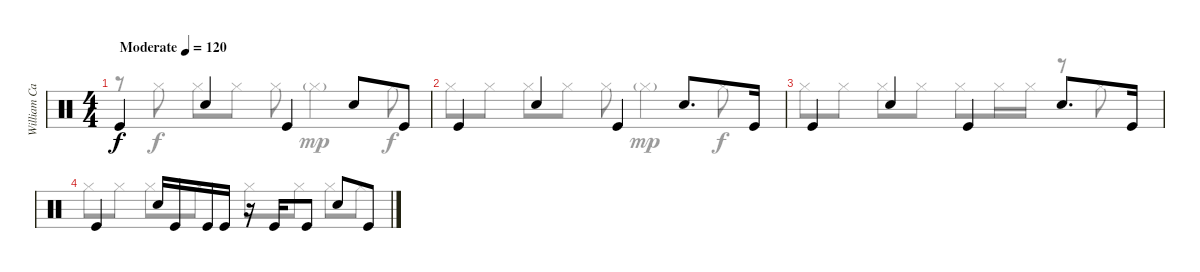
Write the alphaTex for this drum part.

\track ("William Calhoun" "William Ca") {instrument percussion}
\staff {score}
\articulation defaults
\voice
\ts (4 4)
\tempo (120 "Moderate")
\clef neutral
\ks c "Kick (hit)".4{dy f} "Snare (hit) 2".4 "Kick (hit)".4 "Snare (hit) 2".8 "Kick (hit)".8
|
"Kick (hit)".4 "Snare (hit) 2".4 "Kick (hit)".4 "Snare (hit) 2".8{d} "Kick (hit)".16 |
"Kick (hit)".4 "Snare (hit) 2".4 "Kick (hit)".4 "Snare (hit) 2".8{d} "Kick (hit)".16 |
"Kick (hit)".4 "Snare (hit) 2".16 "Kick (hit)".16 "Kick (hit)".16 "Kick (hit)".16 r.16 "Kick (hit)".16 "Kick (hit)".8 "Snare (hit) 2".8 "Kick (hit)".8 |
\voice
\clef neutral
\ottava regular
\simile none
\ks c
r.8{dy f} "Hi-Hat (closed)".8 "Hi-Hat (closed)".8 "Hi-Hat (closed)".8 "Hi-Hat (closed)".8 "Hi-Hat (closed)"{g}.4{dy mp} "Hi-Hat (closed)".8{dy f} |
"Hi-Hat (closed)".8 "Hi-Hat (closed)".8 "Hi-Hat (closed)".8 "Hi-Hat (closed)".8 "Hi-Hat (closed)".8 "Hi-Hat (closed)"{g}.4{dy mp} "Hi-Hat (closed)".8{dy f} |
"Hi-Hat (closed)".8 "Hi-Hat (closed)".8 "Hi-Hat (closed)".8 "Hi-Hat (closed)".8 "Hi-Hat (closed)".8 "Hi-Hat (closed)".16 "Hi-Hat (closed)".16 r.8 "Hi-Hat (closed)".8 |
"Hi-Hat (closed)".8 "Hi-Hat (closed)".8 "Hi-Hat (closed)".8 "Hi-Hat (closed)".8 "Hi-Hat (closed)".8 "Hi-Hat (closed)".8 "Hi-Hat (closed)".8 "Hi-Hat (closed)".8 |
